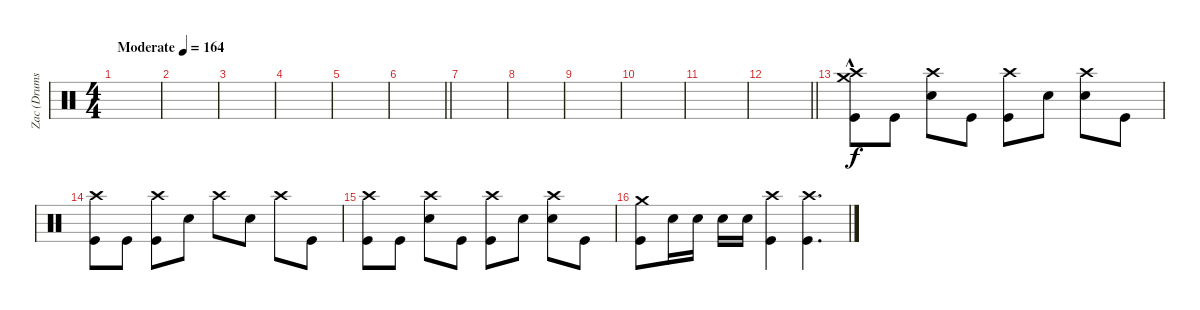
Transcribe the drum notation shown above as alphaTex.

\track ("Zac (Drums)" "Zac (Drums") {instrument percussion}
\staff {score}
\articulation defaults
\ts (4 4)
\tempo (164 "Moderate")
\clef neutral
\ks c
|
|
|
|
|
\barLineRight lightlight
|
|
|
|
|
|
\barLineRight lightlight
|
("Crash high (hit)"{hac} "Crash medium (hit)" "Kick (hit)").8 "Kick (hit)".8{dy f} ("Crash high (hit)" "Electric Snare (hit)").8 "Kick (hit)".8 ("Crash high (hit)" "Kick (hit)").8 "Electric Snare (hit)".8 ("Crash high (hit)" "Electric Snare (hit)").8 "Kick (hit)".8 |
("Crash high (hit)" "Kick (hit)").8 "Kick (hit)".8 ("Crash high (hit)" "Kick (hit)").8 "Electric Snare (hit)".8 "Crash high (hit)".8 "Electric Snare (hit)".8 "Crash high (hit)".8 "Kick (hit)".8 |
("Crash high (hit)" "Kick (hit)").8 "Kick (hit)".8 ("Crash high (hit)" "Electric Snare (hit)").8 "Kick (hit)".8 ("Crash high (hit)" "Kick (hit)").8 "Electric Snare (hit)".8 ("Crash high (hit)" "Electric Snare (hit)").8 "Kick (hit)".8 |
("Crash medium (hit)" "Kick (hit)").8 "Electric Snare (hit)".16 "Electric Snare (hit)".16 "Electric Snare (hit)".16 "Electric Snare (hit)".16 ("Crash high (hit)" "Kick (hit)").4 ("Crash high (hit)" "Kick (hit)").4{d}
